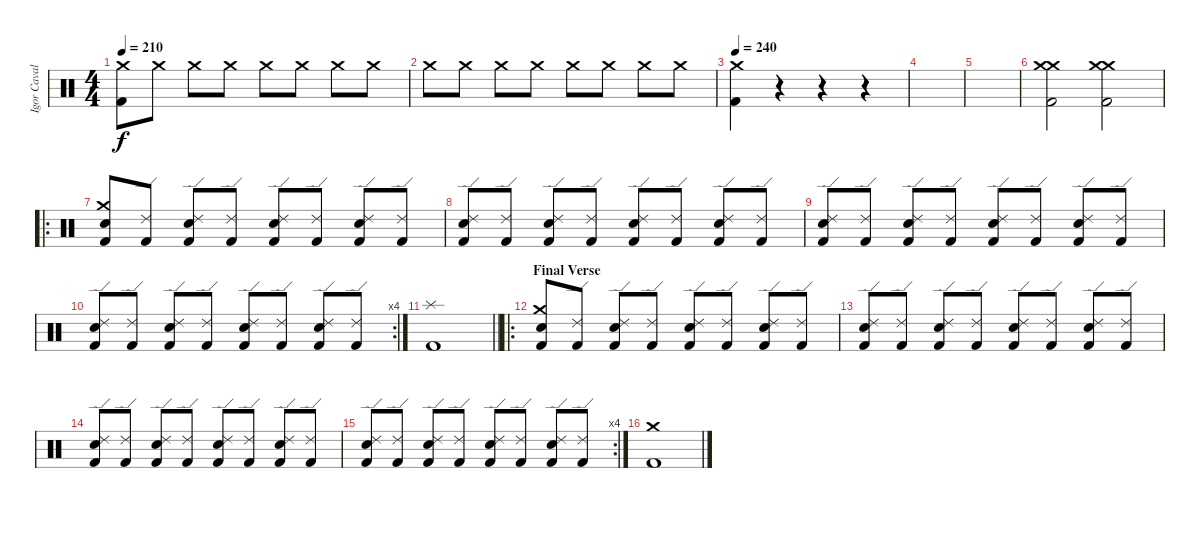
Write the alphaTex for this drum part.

\track ("Igor Cavalera" "Igor Caval") {instrument percussion}
\staff {score}
\articulation defaults
\ts (4 4)
\tempo 210
\clef neutral
\ks c
("Kick (hit) 2" "Crash medium (hit)").8{dy f} "Crash medium (hit)".8 "Crash medium (hit)".8 "Crash medium (hit)".8 "Crash medium (hit)".8 "Crash medium (hit)".8 "Crash medium (hit)".8 "Crash medium (hit)".8 |
"Crash medium (hit)".8 "Crash medium (hit)".8 "Crash medium (hit)".8 "Crash medium (hit)".8 "Crash medium (hit)".8 "Crash medium (hit)".8 "Crash medium (hit)".8 "Crash medium (hit)".8 |
\tempo 240
("Kick (hit) 2" "Crash medium (hit)").4 r.4 r.4 r.4 |
|
|
("Kick (hit) 2" "Crash medium (hit)" "Crash medium (hit)").2 ("Kick (hit) 2" "Crash medium (hit)" "Crash medium (hit)").2 |
\ro
("Kick (hit) 2" "Snare (hit) 2" "Crash medium (hit)").8 ("Kick (hit) 2" "Ride (edge) 2").8 ("Kick (hit) 2" "Snare (hit) 2" "Ride (edge) 2").8 ("Kick (hit) 2" "Ride (edge) 2").8 ("Kick (hit) 2" "Snare (hit) 2" "Ride (edge) 2").8 ("Kick (hit) 2" "Ride (edge) 2").8 ("Kick (hit) 2" "Snare (hit) 2" "Ride (edge) 2").8 ("Kick (hit) 2" "Ride (edge) 2").8 |
("Kick (hit) 2" "Snare (hit) 2" "Ride (edge) 2").8 ("Kick (hit) 2" "Ride (edge) 2").8 ("Kick (hit) 2" "Snare (hit) 2" "Ride (edge) 2").8 ("Kick (hit) 2" "Ride (edge) 2").8 ("Kick (hit) 2" "Snare (hit) 2" "Ride (edge) 2").8 ("Kick (hit) 2" "Ride (edge) 2").8 ("Kick (hit) 2" "Snare (hit) 2" "Ride (edge) 2").8 ("Kick (hit) 2" "Ride (edge) 2").8 |
("Kick (hit) 2" "Snare (hit) 2" "Ride (edge) 2").8 ("Kick (hit) 2" "Ride (edge) 2").8 ("Kick (hit) 2" "Snare (hit) 2" "Ride (edge) 2").8 ("Kick (hit) 2" "Ride (edge) 2").8 ("Kick (hit) 2" "Snare (hit) 2" "Ride (edge) 2").8 ("Kick (hit) 2" "Ride (edge) 2").8 ("Kick (hit) 2" "Snare (hit) 2" "Ride (edge) 2").8 ("Kick (hit) 2" "Ride (edge) 2").8 |
\rc 4
("Kick (hit) 2" "Snare (hit) 2" "Ride (edge) 2").8 ("Kick (hit) 2" "Ride (edge) 2").8 ("Kick (hit) 2" "Snare (hit) 2" "Ride (edge) 2").8 ("Kick (hit) 2" "Ride (edge) 2").8 ("Kick (hit) 2" "Snare (hit) 2" "Ride (edge) 2").8 ("Kick (hit) 2" "Ride (edge) 2").8 ("Kick (hit) 2" "Snare (hit) 2" "Ride (edge) 2").8 ("Kick (hit) 2" "Ride (edge) 2").8 |
\barLineRight lightlight
("Kick (hit) 2" "Splash (hit)").1 |
\ro
\section ("" "Final Verse")
("Kick (hit) 2" "Snare (hit) 2" "Crash medium (hit)").8 ("Kick (hit) 2" "Ride (edge) 2").8 ("Kick (hit) 2" "Snare (hit) 2" "Ride (edge) 2").8 ("Kick (hit) 2" "Ride (edge) 2").8 ("Kick (hit) 2" "Snare (hit) 2" "Ride (edge) 2").8 ("Kick (hit) 2" "Ride (edge) 2").8 ("Kick (hit) 2" "Snare (hit) 2" "Ride (edge) 2").8 ("Kick (hit) 2" "Ride (edge) 2").8 |
("Kick (hit) 2" "Snare (hit) 2" "Ride (edge) 2").8 ("Kick (hit) 2" "Ride (edge) 2").8 ("Kick (hit) 2" "Snare (hit) 2" "Ride (edge) 2").8 ("Kick (hit) 2" "Ride (edge) 2").8 ("Kick (hit) 2" "Snare (hit) 2" "Ride (edge) 2").8 ("Kick (hit) 2" "Ride (edge) 2").8 ("Kick (hit) 2" "Snare (hit) 2" "Ride (edge) 2").8 ("Kick (hit) 2" "Ride (edge) 2").8 |
("Kick (hit) 2" "Snare (hit) 2" "Ride (edge) 2").8 ("Kick (hit) 2" "Ride (edge) 2").8 ("Kick (hit) 2" "Snare (hit) 2" "Ride (edge) 2").8 ("Kick (hit) 2" "Ride (edge) 2").8 ("Kick (hit) 2" "Snare (hit) 2" "Ride (edge) 2").8 ("Kick (hit) 2" "Ride (edge) 2").8 ("Kick (hit) 2" "Snare (hit) 2" "Ride (edge) 2").8 ("Kick (hit) 2" "Ride (edge) 2").8 |
\rc 4
("Kick (hit) 2" "Snare (hit) 2" "Ride (edge) 2").8 ("Kick (hit) 2" "Ride (edge) 2").8 ("Kick (hit) 2" "Snare (hit) 2" "Ride (edge) 2").8 ("Kick (hit) 2" "Ride (edge) 2").8 ("Kick (hit) 2" "Snare (hit) 2" "Ride (edge) 2").8 ("Kick (hit) 2" "Ride (edge) 2").8 ("Kick (hit) 2" "Snare (hit) 2" "Ride (edge) 2").8 ("Kick (hit) 2" "Ride (edge) 2").8 |
("Kick (hit) 2" "Crash medium (hit)").1
